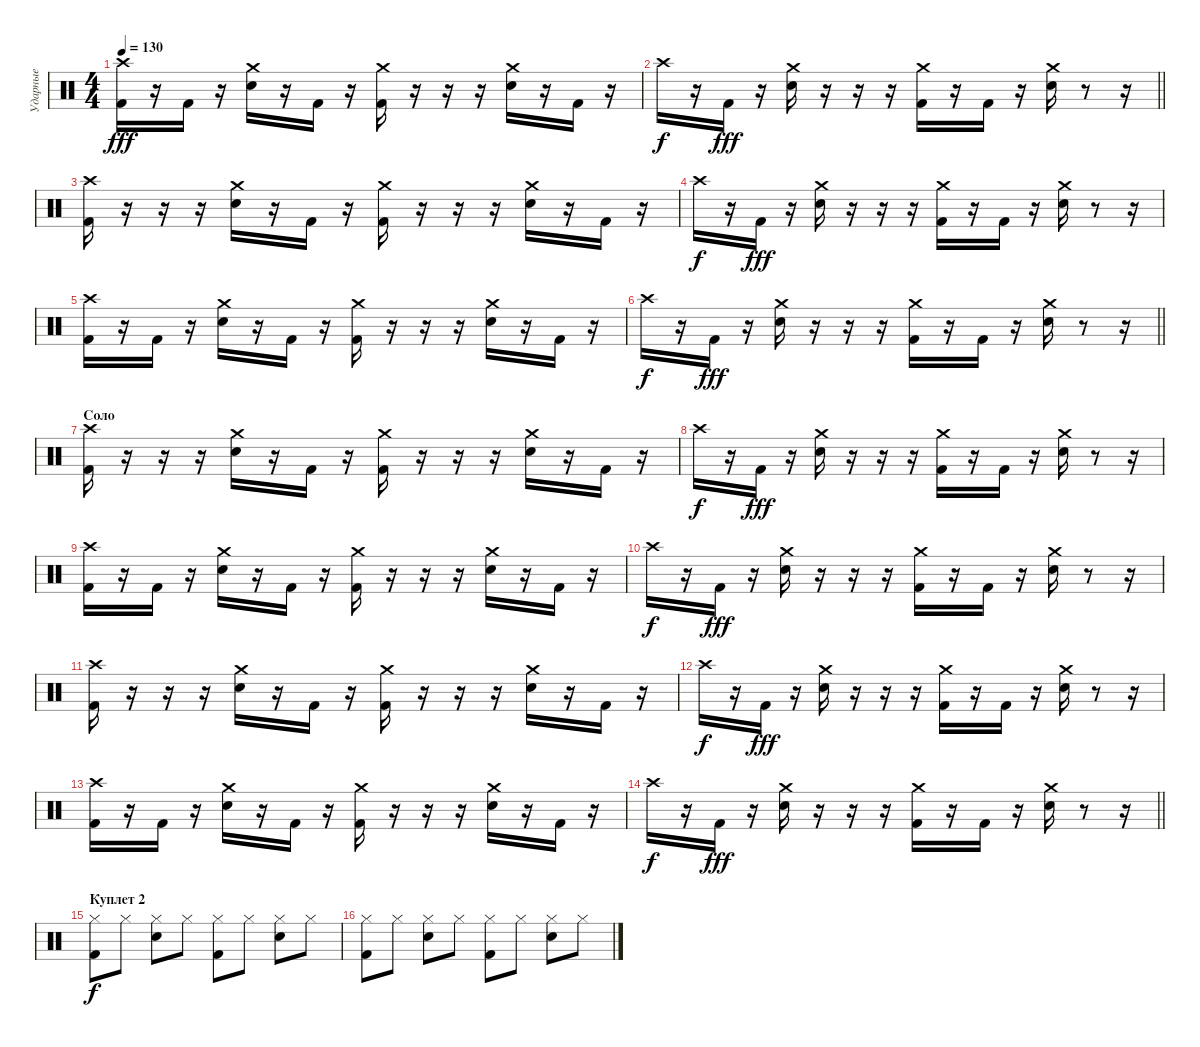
\track ("Ударные" "Ударные") {instrument percussion}
\staff {score}
\articulation defaults
\ts (4 4)
\tempo 130
\clef neutral
\ks c
("Crash high (hit)" "Kick (hit) 2").16{dy fff} r.16 "Kick (hit) 2".16 r.16 ("Crash medium (hit)" "Electric Snare (hit)").16 r.16 "Kick (hit) 2".16 r.16 ("Crash medium (hit)" "Kick (hit) 2").16 r.16 r.16 r.16 ("Crash medium (hit)" "Electric Snare (hit)").16 r.16 "Kick (hit) 2".16 r.16 |
\barLineRight lightlight "Crash high (hit)".16{dy f}
r.16 "Kick (hit) 2".16{dy fff} r.16 ("Crash medium (hit)" "Electric Snare (hit)").16 r.16 r.16 r.16 ("Crash medium (hit)" "Kick (hit) 2").16 r.16 "Kick (hit) 2".16 r.16 ("Crash medium (hit)" "Electric Snare (hit)").16 r.8 r.16 |
("Crash high (hit)" "Kick (hit) 2").16 r.16 r.16 r.16 ("Crash medium (hit)" "Electric Snare (hit)").16 r.16 "Kick (hit) 2".16 r.16 ("Crash medium (hit)" "Kick (hit) 2").16 r.16 r.16 r.16 ("Crash medium (hit)" "Electric Snare (hit)").16 r.16 "Kick (hit) 2".16 r.16 |
"Crash high (hit)".16{dy f} r.16 "Kick (hit) 2".16{dy fff} r.16 ("Crash medium (hit)" "Electric Snare (hit)").16 r.16 r.16 r.16 ("Crash medium (hit)" "Kick (hit) 2").16 r.16 "Kick (hit) 2".16 r.16 ("Crash medium (hit)" "Electric Snare (hit)").16 r.8 r.16 |
("Crash high (hit)" "Kick (hit) 2").16 r.16 "Kick (hit) 2".16 r.16 ("Crash medium (hit)" "Electric Snare (hit)").16 r.16 "Kick (hit) 2".16 r.16 ("Crash medium (hit)" "Kick (hit) 2").16 r.16 r.16 r.16 ("Crash medium (hit)" "Electric Snare (hit)").16 r.16 "Kick (hit) 2".16 r.16 |
\barLineRight lightlight "Crash high (hit)".16{dy f}
r.16 "Kick (hit) 2".16{dy fff} r.16 ("Crash medium (hit)" "Electric Snare (hit)").16 r.16 r.16 r.16 ("Crash medium (hit)" "Kick (hit) 2").16 r.16 "Kick (hit) 2".16 r.16 ("Crash medium (hit)" "Electric Snare (hit)").16 r.8 r.16 |
\section ("" "Соло")
("Crash high (hit)" "Kick (hit) 2").16 r.16 r.16 r.16 ("Crash medium (hit)" "Electric Snare (hit)").16 r.16 "Kick (hit) 2".16 r.16 ("Crash medium (hit)" "Kick (hit) 2").16 r.16 r.16 r.16 ("Crash medium (hit)" "Electric Snare (hit)").16 r.16 "Kick (hit) 2".16 r.16 |
"Crash high (hit)".16{dy f} r.16 "Kick (hit) 2".16{dy fff} r.16 ("Crash medium (hit)" "Electric Snare (hit)").16 r.16 r.16 r.16 ("Crash medium (hit)" "Kick (hit) 2").16 r.16 "Kick (hit) 2".16 r.16 ("Crash medium (hit)" "Electric Snare (hit)").16 r.8 r.16 |
("Crash high (hit)" "Kick (hit) 2").16 r.16 "Kick (hit) 2".16 r.16 ("Crash medium (hit)" "Electric Snare (hit)").16 r.16 "Kick (hit) 2".16 r.16 ("Crash medium (hit)" "Kick (hit) 2").16 r.16 r.16 r.16 ("Crash medium (hit)" "Electric Snare (hit)").16 r.16 "Kick (hit) 2".16 r.16 |
"Crash high (hit)".16{dy f} r.16 "Kick (hit) 2".16{dy fff} r.16 ("Crash medium (hit)" "Electric Snare (hit)").16 r.16 r.16 r.16 ("Crash medium (hit)" "Kick (hit) 2").16 r.16 "Kick (hit) 2".16 r.16 ("Crash medium (hit)" "Electric Snare (hit)").16 r.8 r.16 |
("Crash high (hit)" "Kick (hit) 2").16 r.16 r.16 r.16 ("Crash medium (hit)" "Electric Snare (hit)").16 r.16 "Kick (hit) 2".16 r.16 ("Crash medium (hit)" "Kick (hit) 2").16 r.16 r.16 r.16 ("Crash medium (hit)" "Electric Snare (hit)").16 r.16 "Kick (hit) 2".16 r.16 |
"Crash high (hit)".16{dy f} r.16 "Kick (hit) 2".16{dy fff} r.16 ("Crash medium (hit)" "Electric Snare (hit)").16 r.16 r.16 r.16 ("Crash medium (hit)" "Kick (hit) 2").16 r.16 "Kick (hit) 2".16 r.16 ("Crash medium (hit)" "Electric Snare (hit)").16 r.8 r.16 |
("Crash high (hit)" "Kick (hit) 2").16 r.16 "Kick (hit) 2".16 r.16 ("Crash medium (hit)" "Electric Snare (hit)").16 r.16 "Kick (hit) 2".16 r.16 ("Crash medium (hit)" "Kick (hit) 2").16 r.16 r.16 r.16 ("Crash medium (hit)" "Electric Snare (hit)").16 r.16 "Kick (hit) 2".16 r.16 |
\barLineRight lightlight "Crash high (hit)".16{dy f}
r.16 "Kick (hit) 2".16{dy fff} r.16 ("Crash medium (hit)" "Electric Snare (hit)").16 r.16 r.16 r.16 ("Crash medium (hit)" "Kick (hit) 2").16 r.16 "Kick (hit) 2".16 r.16 ("Crash medium (hit)" "Electric Snare (hit)").16 r.8 r.16 |
\section ("" "Куплет 2")
("Hi-Hat (closed)" "Kick (hit) 2").8{dy f} "Hi-Hat (closed)".8 ("Hi-Hat (closed)" "Electric Snare (hit)").8 "Hi-Hat (closed)".8 ("Hi-Hat (closed)" "Kick (hit) 2").8 "Hi-Hat (closed)".8 ("Hi-Hat (closed)" "Electric Snare (hit)").8 "Hi-Hat (closed)".8 |
("Hi-Hat (closed)" "Kick (hit) 2").8 "Hi-Hat (closed)".8 ("Hi-Hat (closed)" "Electric Snare (hit)").8 "Hi-Hat (closed)".8 ("Hi-Hat (closed)" "Kick (hit) 2").8 "Hi-Hat (closed)".8 ("Hi-Hat (closed)" "Electric Snare (hit)").8 "Hi-Hat (closed)".8
